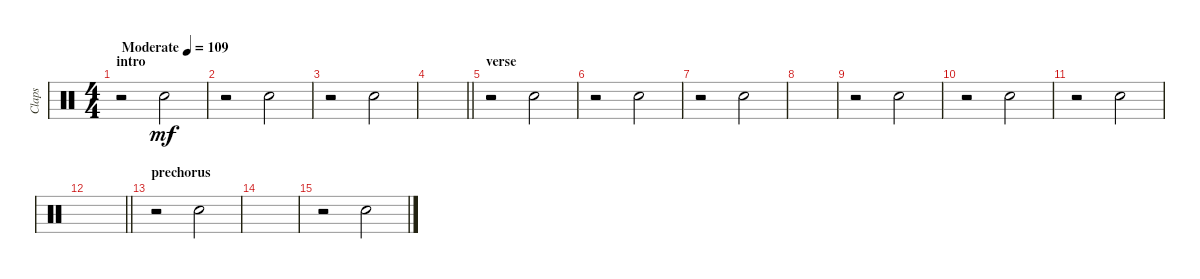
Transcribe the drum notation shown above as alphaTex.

\track ("Claps" "Claps") {instrument percussion}
\staff {score}
\articulation defaults
\ts (4 4)
\section ("" "intro")
\tempo (109 "Moderate")
\clef neutral
\ks c
r.2{dy mf} "Hand Clap (hit)".2 |
r.2 "Hand Clap (hit)".2 |
r.2 "Hand Clap (hit)".2 |
\barLineRight lightlight
|
\section ("" "verse")
r.2 "Hand Clap (hit)".2 |
r.2 "Hand Clap (hit)".2 |
r.2 "Hand Clap (hit)".2 |
|
r.2 "Hand Clap (hit)".2 |
r.2 "Hand Clap (hit)".2 |
r.2 "Hand Clap (hit)".2 |
\barLineRight lightlight
|
\section ("" "prechorus")
r.2 "Hand Clap (hit)".2 |
|
r.2 "Hand Clap (hit)".2
